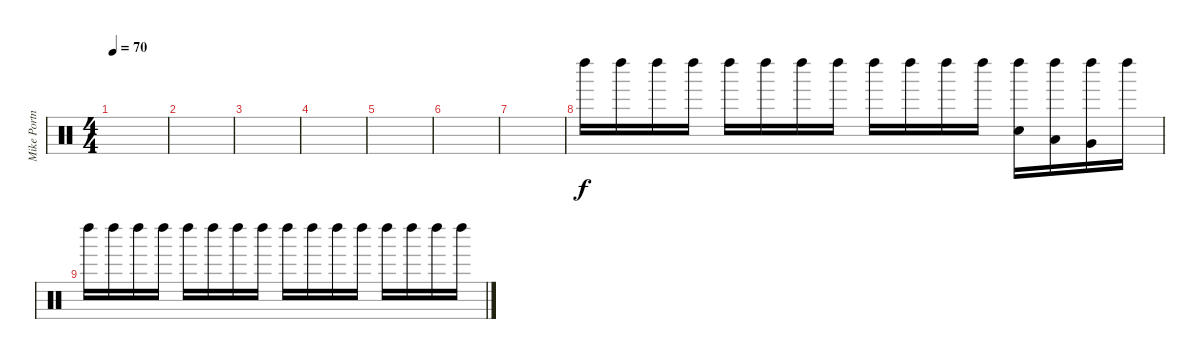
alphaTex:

\track ("Mike Portnoy" "Mike Portn") {instrument percussion}
\staff {score}
\articulation defaults
\ts (4 4)
\tempo 70
\clef neutral
\ks c
|
|
|
|
|
|
|
"Left Maraca (hit)".16 "Left Maraca (hit)".16 "Left Maraca (hit)".16 "Left Maraca (hit)".16 "Left Maraca (hit)".16 "Left Maraca (hit)".16 "Left Maraca (hit)".16 "Left Maraca (hit)".16 "Left Maraca (hit)".16 "Left Maraca (hit)".16 "Left Maraca (hit)".16 "Left Maraca (hit)".16 ("Electric Snare (hit)" "Left Maraca (hit)").16 ("Low Floor Tom (hit)" "Left Maraca (hit)").16 ("Very Low Tom (hit)" "Left Maraca (hit)").16 "Left Maraca (hit)".16 |
"Left Maraca (hit)".16 "Left Maraca (hit)".16 "Left Maraca (hit)".16 "Left Maraca (hit)".16 "Left Maraca (hit)".16 "Left Maraca (hit)".16 "Left Maraca (hit)".16 "Left Maraca (hit)".16 "Left Maraca (hit)".16 "Left Maraca (hit)".16 "Left Maraca (hit)".16 "Left Maraca (hit)".16 "Left Maraca (hit)".16 "Left Maraca (hit)".16 "Left Maraca (hit)".16 "Left Maraca (hit)".16
